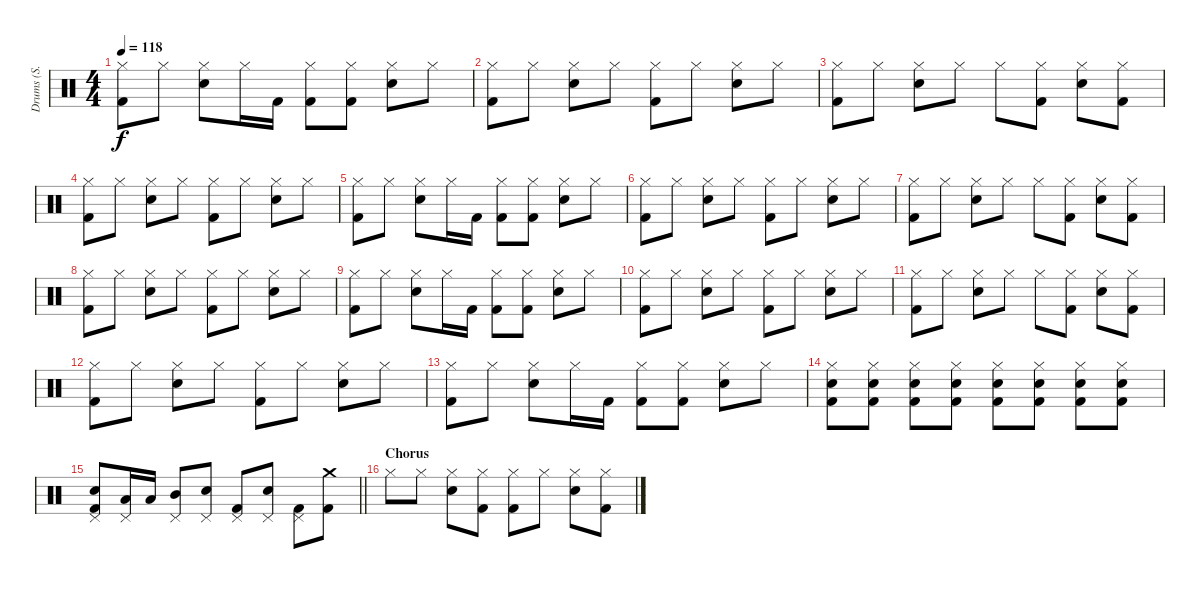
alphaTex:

\track ("Drums (S. Rockenfield)" "Drums (S. ") {instrument percussion}
\staff {score}
\articulation defaults
\ts (4 4)
\tempo 118
\clef neutral
\ks c
("Hi-Hat (closed)" "Kick (hit) 2").8{dy f} "Hi-Hat (closed)".8 ("Hi-Hat (closed)" "Snare (hit) 2").8 "Hi-Hat (closed)".16 "Kick (hit) 2".16 ("Hi-Hat (closed)" "Kick (hit) 2").8 ("Hi-Hat (closed)" "Kick (hit) 2").8 ("Hi-Hat (closed)" "Snare (hit) 2").8 "Hi-Hat (closed)".8 |
("Hi-Hat (closed)" "Kick (hit) 2").8 "Hi-Hat (closed)".8 ("Hi-Hat (closed)" "Snare (hit) 2").8 "Hi-Hat (closed)".8 ("Hi-Hat (closed)" "Kick (hit) 2").8 "Hi-Hat (closed)".8 ("Hi-Hat (closed)" "Snare (hit) 2").8 "Hi-Hat (closed)".8 |
("Hi-Hat (closed)" "Kick (hit) 2").8 "Hi-Hat (closed)".8 ("Hi-Hat (closed)" "Snare (hit) 2").8 "Hi-Hat (closed)".8 "Hi-Hat (closed)".8 ("Hi-Hat (closed)" "Kick (hit) 2").8 ("Hi-Hat (closed)" "Snare (hit) 2").8 ("Hi-Hat (closed)" "Kick (hit) 2").8 |
("Hi-Hat (closed)" "Kick (hit) 2").8 "Hi-Hat (closed)".8 ("Hi-Hat (closed)" "Snare (hit) 2").8 "Hi-Hat (closed)".8 ("Hi-Hat (closed)" "Kick (hit) 2").8 "Hi-Hat (closed)".8 ("Hi-Hat (closed)" "Snare (hit) 2").8 "Hi-Hat (closed)".8 |
("Hi-Hat (closed)" "Kick (hit) 2").8 "Hi-Hat (closed)".8 ("Hi-Hat (closed)" "Snare (hit) 2").8 "Hi-Hat (closed)".16 "Kick (hit) 2".16 ("Hi-Hat (closed)" "Kick (hit) 2").8 ("Hi-Hat (closed)" "Kick (hit) 2").8 ("Hi-Hat (closed)" "Snare (hit) 2").8 "Hi-Hat (closed)".8 |
("Hi-Hat (closed)" "Kick (hit) 2").8 "Hi-Hat (closed)".8 ("Hi-Hat (closed)" "Snare (hit) 2").8 "Hi-Hat (closed)".8 ("Hi-Hat (closed)" "Kick (hit) 2").8 "Hi-Hat (closed)".8 ("Hi-Hat (closed)" "Snare (hit) 2").8 "Hi-Hat (closed)".8 |
("Hi-Hat (closed)" "Kick (hit) 2").8 "Hi-Hat (closed)".8 ("Hi-Hat (closed)" "Snare (hit) 2").8 "Hi-Hat (closed)".8 "Hi-Hat (closed)".8 ("Hi-Hat (closed)" "Kick (hit) 2").8 ("Hi-Hat (closed)" "Snare (hit) 2").8 ("Hi-Hat (closed)" "Kick (hit) 2").8 |
("Hi-Hat (closed)" "Kick (hit) 2").8 "Hi-Hat (closed)".8 ("Hi-Hat (closed)" "Snare (hit) 2").8 "Hi-Hat (closed)".8 ("Hi-Hat (closed)" "Kick (hit) 2").8 "Hi-Hat (closed)".8 ("Hi-Hat (closed)" "Snare (hit) 2").8 "Hi-Hat (closed)".8 |
("Hi-Hat (closed)" "Kick (hit) 2").8 "Hi-Hat (closed)".8 ("Hi-Hat (closed)" "Snare (hit) 2").8 "Hi-Hat (closed)".16 "Kick (hit) 2".16 ("Hi-Hat (closed)" "Kick (hit) 2").8 ("Hi-Hat (closed)" "Kick (hit) 2").8 ("Hi-Hat (closed)" "Snare (hit) 2").8 "Hi-Hat (closed)".8 |
("Hi-Hat (closed)" "Kick (hit) 2").8 "Hi-Hat (closed)".8 ("Hi-Hat (closed)" "Snare (hit) 2").8 "Hi-Hat (closed)".8 ("Hi-Hat (closed)" "Kick (hit) 2").8 "Hi-Hat (closed)".8 ("Hi-Hat (closed)" "Snare (hit) 2").8 "Hi-Hat (closed)".8 |
("Hi-Hat (closed)" "Kick (hit) 2").8 "Hi-Hat (closed)".8 ("Hi-Hat (closed)" "Snare (hit) 2").8 "Hi-Hat (closed)".8 "Hi-Hat (closed)".8 ("Hi-Hat (closed)" "Kick (hit) 2").8 ("Hi-Hat (closed)" "Snare (hit) 2").8 ("Hi-Hat (closed)" "Kick (hit) 2").8 |
("Hi-Hat (closed)" "Kick (hit) 2").8 "Hi-Hat (closed)".8 ("Hi-Hat (closed)" "Snare (hit) 2").8 "Hi-Hat (closed)".8 ("Hi-Hat (closed)" "Kick (hit) 2").8 "Hi-Hat (closed)".8 ("Hi-Hat (closed)" "Snare (hit) 2").8 "Hi-Hat (closed)".8 |
("Hi-Hat (closed)" "Kick (hit) 2").8 "Hi-Hat (closed)".8 ("Hi-Hat (closed)" "Snare (hit) 2").8 "Hi-Hat (closed)".16 "Kick (hit) 2".16 ("Hi-Hat (closed)" "Kick (hit) 2").8 ("Hi-Hat (closed)" "Kick (hit) 2").8 ("Hi-Hat (closed)" "Snare (hit) 2").8 "Hi-Hat (closed)".8 |
("Hi-Hat (closed)" "Snare (hit) 2" "Kick (hit) 2").8 ("Hi-Hat (closed)" "Snare (hit) 2" "Kick (hit) 2").8 ("Hi-Hat (closed)" "Snare (hit) 2" "Kick (hit) 2").8 ("Hi-Hat (closed)" "Snare (hit) 2" "Kick (hit) 2").8 ("Hi-Hat (closed)" "Snare (hit) 2" "Kick (hit) 2").8 ("Hi-Hat (closed)" "Snare (hit) 2" "Kick (hit) 2").8 ("Hi-Hat (closed)" "Snare (hit) 2" "Kick (hit) 2").8 ("Hi-Hat (closed)" "Snare (hit) 2" "Kick (hit) 2").8 |
\barLineRight lightlight
("Pedal Hi-Hat (hit)" "Snare (hit) 2" "Kick (hit) 2").8 ("Pedal Hi-Hat (hit)" "Low Tom (hit)").16 "Low Tom (hit)".16 ("Pedal Hi-Hat (hit)" "Mid Tom (hit)").8 ("Pedal Hi-Hat (hit)" "Snare (hit) 2").8 ("Pedal Hi-Hat (hit)" "Kick (hit) 2").8 ("Pedal Hi-Hat (hit)" "Snare (hit) 2").8 ("Pedal Hi-Hat (hit)" "Kick (hit) 2").8 ("Crash medium (hit)" "Kick (hit) 2").8 |
\section ("" "Chorus")
"Hi-Hat (closed)".8 "Hi-Hat (closed)".8 ("Hi-Hat (closed)" "Snare (hit) 2").8 ("Hi-Hat (closed)" "Kick (hit) 2").8 ("Hi-Hat (closed)" "Kick (hit) 2").8 "Hi-Hat (closed)".8 ("Hi-Hat (closed)" "Snare (hit) 2").8 ("Hi-Hat (closed)" "Kick (hit) 2").8
